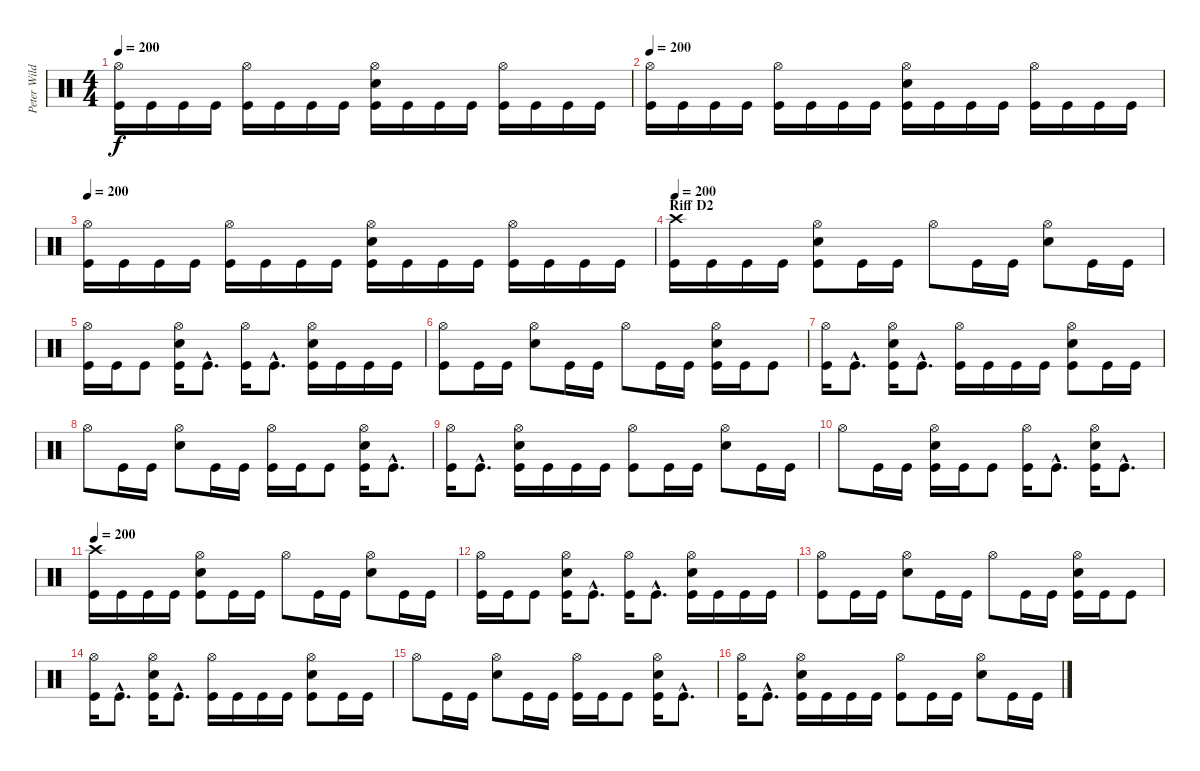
\track ("Peter Wildoer " "Peter Wild") {instrument percussion}
\staff {score}
\articulation defaults
\ts (4 4)
\tempo 200
\clef neutral
\ks c
("Hi-Hat (open)" "Kick (hit)").16{dy f} "Kick (hit)".16 "Kick (hit)".16 "Kick (hit)".16 ("Hi-Hat (open)" "Kick (hit)").16 "Kick (hit)".16 "Kick (hit)".16 "Kick (hit)".16 ("Hi-Hat (open)" "Electric Snare (hit)" "Kick (hit)").16 "Kick (hit)".16 "Kick (hit)".16 "Kick (hit)".16 ("Hi-Hat (open)" "Kick (hit)").16 "Kick (hit)".16 "Kick (hit)".16 "Kick (hit)".16 |
\tempo 200
("Hi-Hat (open)" "Kick (hit)").16 "Kick (hit)".16 "Kick (hit)".16 "Kick (hit)".16 ("Hi-Hat (open)" "Kick (hit)").16 "Kick (hit)".16 "Kick (hit)".16 "Kick (hit)".16 ("Hi-Hat (open)" "Electric Snare (hit)" "Kick (hit)").16 "Kick (hit)".16 "Kick (hit)".16 "Kick (hit)".16 ("Hi-Hat (open)" "Kick (hit)").16 "Kick (hit)".16 "Kick (hit)".16 "Kick (hit)".16 |
\tempo 200
("Hi-Hat (open)" "Kick (hit)").16 "Kick (hit)".16 "Kick (hit)".16 "Kick (hit)".16 ("Hi-Hat (open)" "Kick (hit)").16 "Kick (hit)".16 "Kick (hit)".16 "Kick (hit)".16 ("Hi-Hat (open)" "Electric Snare (hit)" "Kick (hit)").16 "Kick (hit)".16 "Kick (hit)".16 "Kick (hit)".16 ("Hi-Hat (open)" "Kick (hit)").16 "Kick (hit)".16 "Kick (hit)".16 "Kick (hit)".16 |
\section ("" "Riff D2")
\tempo 200
("Crash high (hit)" "Kick (hit)").16 "Kick (hit)".16 "Kick (hit)".16 "Kick (hit)".16 ("Hi-Hat (open)" "Electric Snare (hit)" "Kick (hit)").8 "Kick (hit)".16 "Kick (hit)".16 "Hi-Hat (open)".8 "Kick (hit)".16 "Kick (hit)".16 ("Hi-Hat (open)" "Electric Snare (hit)").8 "Kick (hit)".16 "Kick (hit)".16 |
("Hi-Hat (open)" "Kick (hit)").16 "Kick (hit)".16 "Kick (hit)".8 ("Hi-Hat (open)" "Electric Snare (hit)" "Kick (hit)").16 "Kick (hit)"{hac}.8{d} ("Hi-Hat (open)" "Kick (hit)").16 "Kick (hit)"{hac}.8{d} ("Hi-Hat (open)" "Electric Snare (hit)" "Kick (hit)").16 "Kick (hit)".16 "Kick (hit)".16 "Kick (hit)".16 |
("Hi-Hat (open)" "Kick (hit)").8 "Kick (hit)".16 "Kick (hit)".16 ("Hi-Hat (open)" "Electric Snare (hit)").8 "Kick (hit)".16 "Kick (hit)".16 "Hi-Hat (open)".8 "Kick (hit)".16 "Kick (hit)".16 ("Hi-Hat (open)" "Electric Snare (hit)" "Kick (hit)").16 "Kick (hit)".16 "Kick (hit)".8 |
("Hi-Hat (open)" "Kick (hit)").16 "Kick (hit)"{hac}.8{d} ("Hi-Hat (open)" "Electric Snare (hit)" "Kick (hit)").16 "Kick (hit)"{hac}.8{d} ("Hi-Hat (open)" "Kick (hit)").16 "Kick (hit)".16 "Kick (hit)".16 "Kick (hit)".16 ("Hi-Hat (open)" "Electric Snare (hit)" "Kick (hit)").8 "Kick (hit)".16 "Kick (hit)".16 |
"Hi-Hat (open)".8 "Kick (hit)".16 "Kick (hit)".16 ("Hi-Hat (open)" "Electric Snare (hit)").8 "Kick (hit)".16 "Kick (hit)".16 ("Hi-Hat (open)" "Kick (hit)").16 "Kick (hit)".16 "Kick (hit)".8 ("Hi-Hat (open)" "Electric Snare (hit)" "Kick (hit)").16 "Kick (hit)"{hac}.8{d} |
("Hi-Hat (open)" "Kick (hit)").16 "Kick (hit)"{hac}.8{d} ("Hi-Hat (open)" "Electric Snare (hit)" "Kick (hit)").16 "Kick (hit)".16 "Kick (hit)".16 "Kick (hit)".16 ("Hi-Hat (open)" "Kick (hit)").8 "Kick (hit)".16 "Kick (hit)".16 ("Hi-Hat (open)" "Electric Snare (hit)").8 "Kick (hit)".16 "Kick (hit)".16 |
"Hi-Hat (open)".8 "Kick (hit)".16 "Kick (hit)".16 ("Hi-Hat (open)" "Electric Snare (hit)" "Kick (hit)").16 "Kick (hit)".16 "Kick (hit)".8 ("Hi-Hat (open)" "Kick (hit)").16 "Kick (hit)"{hac}.8{d} ("Hi-Hat (open)" "Electric Snare (hit)" "Kick (hit)").16 "Kick (hit)"{hac}.8{d} |
\tempo 200
("Crash high (hit)" "Kick (hit)").16 "Kick (hit)".16 "Kick (hit)".16 "Kick (hit)".16 ("Hi-Hat (open)" "Electric Snare (hit)" "Kick (hit)").8 "Kick (hit)".16 "Kick (hit)".16 "Hi-Hat (open)".8 "Kick (hit)".16 "Kick (hit)".16 ("Hi-Hat (open)" "Electric Snare (hit)").8 "Kick (hit)".16 "Kick (hit)".16 |
("Hi-Hat (open)" "Kick (hit)").16 "Kick (hit)".16 "Kick (hit)".8 ("Hi-Hat (open)" "Electric Snare (hit)" "Kick (hit)").16 "Kick (hit)"{hac}.8{d} ("Hi-Hat (open)" "Kick (hit)").16 "Kick (hit)"{hac}.8{d} ("Hi-Hat (open)" "Electric Snare (hit)" "Kick (hit)").16 "Kick (hit)".16 "Kick (hit)".16 "Kick (hit)".16 |
("Hi-Hat (open)" "Kick (hit)").8 "Kick (hit)".16 "Kick (hit)".16 ("Hi-Hat (open)" "Electric Snare (hit)").8 "Kick (hit)".16 "Kick (hit)".16 "Hi-Hat (open)".8 "Kick (hit)".16 "Kick (hit)".16 ("Hi-Hat (open)" "Electric Snare (hit)" "Kick (hit)").16 "Kick (hit)".16 "Kick (hit)".8 |
("Hi-Hat (open)" "Kick (hit)").16 "Kick (hit)"{hac}.8{d} ("Hi-Hat (open)" "Electric Snare (hit)" "Kick (hit)").16 "Kick (hit)"{hac}.8{d} ("Hi-Hat (open)" "Kick (hit)").16 "Kick (hit)".16 "Kick (hit)".16 "Kick (hit)".16 ("Hi-Hat (open)" "Electric Snare (hit)" "Kick (hit)").8 "Kick (hit)".16 "Kick (hit)".16 |
"Hi-Hat (open)".8 "Kick (hit)".16 "Kick (hit)".16 ("Hi-Hat (open)" "Electric Snare (hit)").8 "Kick (hit)".16 "Kick (hit)".16 ("Hi-Hat (open)" "Kick (hit)").16 "Kick (hit)".16 "Kick (hit)".8 ("Hi-Hat (open)" "Electric Snare (hit)" "Kick (hit)").16 "Kick (hit)"{hac}.8{d} |
("Hi-Hat (open)" "Kick (hit)").16 "Kick (hit)"{hac}.8{d} ("Hi-Hat (open)" "Electric Snare (hit)" "Kick (hit)").16 "Kick (hit)".16 "Kick (hit)".16 "Kick (hit)".16 ("Hi-Hat (open)" "Kick (hit)").8 "Kick (hit)".16 "Kick (hit)".16 ("Hi-Hat (open)" "Electric Snare (hit)").8 "Kick (hit)".16 "Kick (hit)".16
